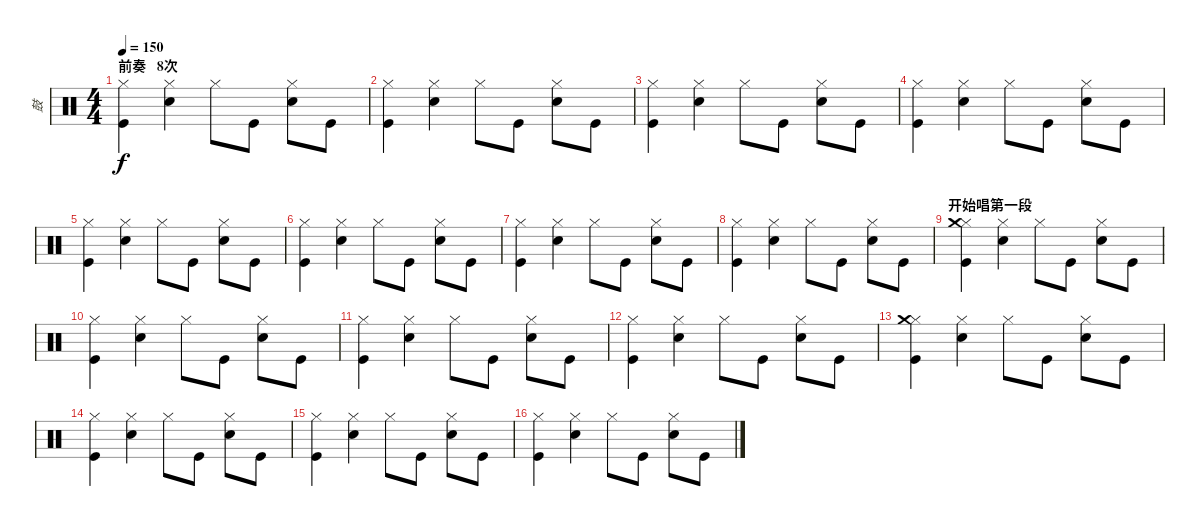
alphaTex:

\track ("鼓" "鼓") {instrument percussion}
\staff {score}
\articulation defaults
\ts (4 4)
\section ("" "前奏   8次")
\tempo 150
\clef neutral
\ks c
("Kick (hit)" "Hi-Hat (closed)").4{dy f} ("Snare (hit) 2" "Hi-Hat (closed)").4 "Hi-Hat (closed)".8 "Kick (hit)".8 ("Snare (hit) 2" "Hi-Hat (closed)").8 "Kick (hit)".8 |
("Kick (hit)" "Hi-Hat (closed)").4 ("Snare (hit) 2" "Hi-Hat (closed)").4 "Hi-Hat (closed)".8 "Kick (hit)".8 ("Snare (hit) 2" "Hi-Hat (closed)").8 "Kick (hit)".8 |
("Kick (hit)" "Hi-Hat (closed)").4 ("Snare (hit) 2" "Hi-Hat (closed)").4 "Hi-Hat (closed)".8 "Kick (hit)".8 ("Snare (hit) 2" "Hi-Hat (closed)").8 "Kick (hit)".8 |
("Kick (hit)" "Hi-Hat (closed)").4 ("Snare (hit) 2" "Hi-Hat (closed)").4 "Hi-Hat (closed)".8 "Kick (hit)".8 ("Snare (hit) 2" "Hi-Hat (closed)").8 "Kick (hit)".8 |
("Kick (hit)" "Hi-Hat (closed)").4 ("Snare (hit) 2" "Hi-Hat (closed)").4 "Hi-Hat (closed)".8 "Kick (hit)".8 ("Snare (hit) 2" "Hi-Hat (closed)").8 "Kick (hit)".8 |
("Kick (hit)" "Hi-Hat (closed)").4 ("Snare (hit) 2" "Hi-Hat (closed)").4 "Hi-Hat (closed)".8 "Kick (hit)".8 ("Snare (hit) 2" "Hi-Hat (closed)").8 "Kick (hit)".8 |
("Kick (hit)" "Hi-Hat (closed)").4 ("Snare (hit) 2" "Hi-Hat (closed)").4 "Hi-Hat (closed)".8 "Kick (hit)".8 ("Snare (hit) 2" "Hi-Hat (closed)").8 "Kick (hit)".8 |
("Kick (hit)" "Hi-Hat (closed)").4 ("Snare (hit) 2" "Hi-Hat (closed)").4 "Hi-Hat (closed)".8 "Kick (hit)".8 ("Snare (hit) 2" "Hi-Hat (closed)").8 "Kick (hit)".8 |
\section ("" "开始唱第一段")
("Kick (hit)" "Hi-Hat (closed)" "Crash medium (hit)").4 ("Snare (hit) 2" "Hi-Hat (closed)").4 "Hi-Hat (closed)".8 "Kick (hit)".8 ("Snare (hit) 2" "Hi-Hat (closed)").8 "Kick (hit)".8 |
("Kick (hit)" "Hi-Hat (closed)").4 ("Snare (hit) 2" "Hi-Hat (closed)").4 "Hi-Hat (closed)".8 "Kick (hit)".8 ("Snare (hit) 2" "Hi-Hat (closed)").8 "Kick (hit)".8 |
("Kick (hit)" "Hi-Hat (closed)").4 ("Snare (hit) 2" "Hi-Hat (closed)").4 "Hi-Hat (closed)".8 "Kick (hit)".8 ("Snare (hit) 2" "Hi-Hat (closed)").8 "Kick (hit)".8 |
("Kick (hit)" "Hi-Hat (closed)").4 ("Snare (hit) 2" "Hi-Hat (closed)").4 "Hi-Hat (closed)".8 "Kick (hit)".8 ("Snare (hit) 2" "Hi-Hat (closed)").8 "Kick (hit)".8 |
("Kick (hit)" "Hi-Hat (closed)" "Crash medium (hit)").4 ("Snare (hit) 2" "Hi-Hat (closed)").4 "Hi-Hat (closed)".8 "Kick (hit)".8 ("Snare (hit) 2" "Hi-Hat (closed)").8 "Kick (hit)".8 |
("Kick (hit)" "Hi-Hat (closed)").4 ("Snare (hit) 2" "Hi-Hat (closed)").4 "Hi-Hat (closed)".8 "Kick (hit)".8 ("Snare (hit) 2" "Hi-Hat (closed)").8 "Kick (hit)".8 |
("Kick (hit)" "Hi-Hat (closed)").4 ("Snare (hit) 2" "Hi-Hat (closed)").4 "Hi-Hat (closed)".8 "Kick (hit)".8 ("Snare (hit) 2" "Hi-Hat (closed)").8 "Kick (hit)".8 |
("Kick (hit)" "Hi-Hat (closed)").4 ("Snare (hit) 2" "Hi-Hat (closed)").4 "Hi-Hat (closed)".8 "Kick (hit)".8 ("Snare (hit) 2" "Hi-Hat (closed)").8 "Kick (hit)".8
